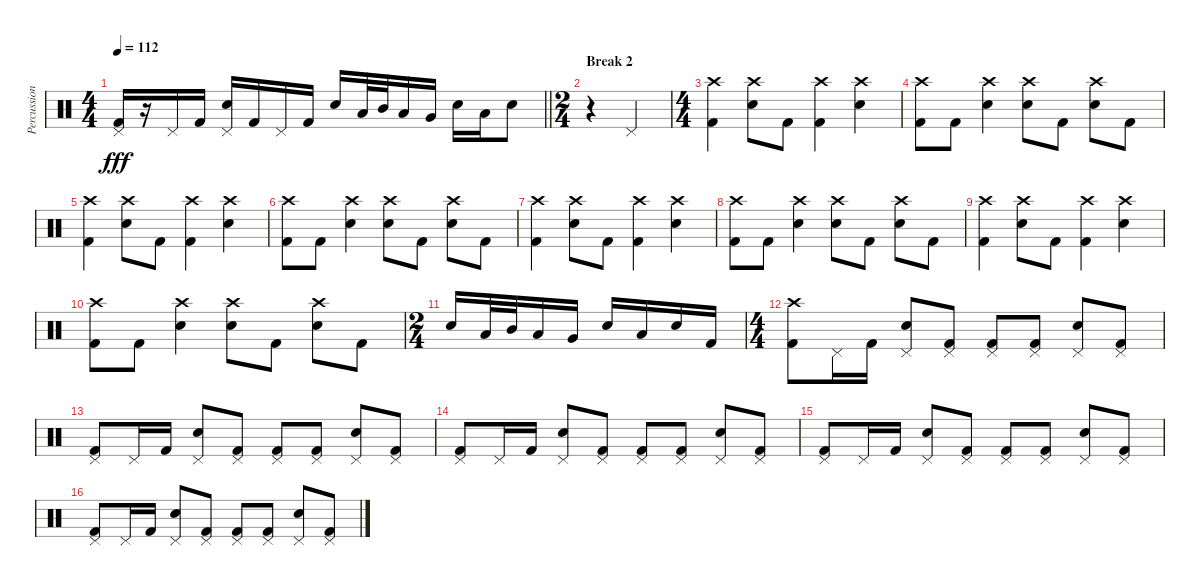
\track ("Percussion" "Percussion") {instrument percussion}
\staff {score}
\articulation defaults
\ts (4 4)
\tempo 112
\clef neutral
\barLineRight lightlight
\ks c
("Pedal Hi-Hat (hit)" "Kick (hit) 2").16{dy fff} r.16 "Pedal Hi-Hat (hit)".16 "Kick (hit) 2".16 ("Pedal Hi-Hat (hit)" "Electric Snare (hit)").16 "Kick (hit) 2".16 "Pedal Hi-Hat (hit)".16 "Kick (hit) 2".16 "Snare (hit) 2".16 "Low Tom (hit)".32 "Mid Tom (hit)".32 "Low Tom (hit)".16 "Very Low Tom (hit)".16 "Snare (hit) 2".16 "Low Tom (hit)".16 "Snare (hit) 2".8 |
\ts (2 4)
\section ("" "Break 2")
r.4 "Pedal Hi-Hat (hit)".4 |
\ts (4 4)
("Crash high (hit)" "Kick (hit) 2").4 ("Crash high (hit)" "Electric Snare (hit)").8 "Kick (hit) 2".8 ("Crash high (hit)" "Kick (hit) 2").4 ("Crash high (hit)" "Electric Snare (hit)").4 |
("Crash high (hit)" "Kick (hit) 2").8 "Kick (hit) 2".8 ("Crash high (hit)" "Electric Snare (hit)").4 ("Crash high (hit)" "Electric Snare (hit)").8 "Kick (hit) 2".8 ("Crash high (hit)" "Electric Snare (hit)").8 "Kick (hit) 2".8 |
("Crash high (hit)" "Kick (hit) 2").4 ("Crash high (hit)" "Electric Snare (hit)").8 "Kick (hit) 2".8 ("Crash high (hit)" "Kick (hit) 2").4 ("Crash high (hit)" "Electric Snare (hit)").4 |
("Crash high (hit)" "Kick (hit) 2").8 "Kick (hit) 2".8 ("Crash high (hit)" "Electric Snare (hit)").4 ("Crash high (hit)" "Electric Snare (hit)").8 "Kick (hit) 2".8 ("Crash high (hit)" "Electric Snare (hit)").8 "Kick (hit) 2".8 |
("Crash high (hit)" "Kick (hit) 2").4 ("Crash high (hit)" "Electric Snare (hit)").8 "Kick (hit) 2".8 ("Crash high (hit)" "Kick (hit) 2").4 ("Crash high (hit)" "Electric Snare (hit)").4 |
("Crash high (hit)" "Kick (hit) 2").8 "Kick (hit) 2".8 ("Crash high (hit)" "Electric Snare (hit)").4 ("Crash high (hit)" "Electric Snare (hit)").8 "Kick (hit) 2".8 ("Crash high (hit)" "Electric Snare (hit)").8 "Kick (hit) 2".8 |
("Crash high (hit)" "Kick (hit) 2").4 ("Crash high (hit)" "Electric Snare (hit)").8 "Kick (hit) 2".8 ("Crash high (hit)" "Kick (hit) 2").4 ("Crash high (hit)" "Electric Snare (hit)").4 |
("Crash high (hit)" "Kick (hit) 2").8 "Kick (hit) 2".8 ("Crash high (hit)" "Electric Snare (hit)").4 ("Crash high (hit)" "Electric Snare (hit)").8 "Kick (hit) 2".8 ("Crash high (hit)" "Electric Snare (hit)").8 "Kick (hit) 2".8 |
\ts (2 4)
"Snare (hit) 2".16 "Low Tom (hit)".32 "Mid Tom (hit)".32 "Low Tom (hit)".16 "Very Low Tom (hit)".16 "Snare (hit) 2".16 "Low Tom (hit)".16 "Snare (hit) 2".16 "Kick (hit) 2".16 |
\ts (4 4)
("Crash high (hit)" "Kick (hit) 2").8 "Pedal Hi-Hat (hit)".16 "Kick (hit) 2".16 ("Pedal Hi-Hat (hit)" "Electric Snare (hit)").8 ("Pedal Hi-Hat (hit)" "Kick (hit) 2").8 ("Pedal Hi-Hat (hit)" "Kick (hit) 2").8 ("Pedal Hi-Hat (hit)" "Kick (hit) 2").8 ("Pedal Hi-Hat (hit)" "Electric Snare (hit)").8 ("Pedal Hi-Hat (hit)" "Kick (hit) 2").8 |
("Pedal Hi-Hat (hit)" "Kick (hit) 2").8 "Pedal Hi-Hat (hit)".16 "Kick (hit) 2".16 ("Pedal Hi-Hat (hit)" "Electric Snare (hit)").8 ("Pedal Hi-Hat (hit)" "Kick (hit) 2").8 ("Pedal Hi-Hat (hit)" "Kick (hit) 2").8 ("Pedal Hi-Hat (hit)" "Kick (hit) 2").8 ("Pedal Hi-Hat (hit)" "Electric Snare (hit)").8 ("Pedal Hi-Hat (hit)" "Kick (hit) 2").8 |
("Pedal Hi-Hat (hit)" "Kick (hit) 2").8 "Pedal Hi-Hat (hit)".16 "Kick (hit) 2".16 ("Pedal Hi-Hat (hit)" "Electric Snare (hit)").8 ("Pedal Hi-Hat (hit)" "Kick (hit) 2").8 ("Pedal Hi-Hat (hit)" "Kick (hit) 2").8 ("Pedal Hi-Hat (hit)" "Kick (hit) 2").8 ("Pedal Hi-Hat (hit)" "Electric Snare (hit)").8 ("Pedal Hi-Hat (hit)" "Kick (hit) 2").8 |
("Pedal Hi-Hat (hit)" "Kick (hit) 2").8 "Pedal Hi-Hat (hit)".16 "Kick (hit) 2".16 ("Pedal Hi-Hat (hit)" "Electric Snare (hit)").8 ("Pedal Hi-Hat (hit)" "Kick (hit) 2").8 ("Pedal Hi-Hat (hit)" "Kick (hit) 2").8 ("Pedal Hi-Hat (hit)" "Kick (hit) 2").8 ("Pedal Hi-Hat (hit)" "Electric Snare (hit)").8 ("Pedal Hi-Hat (hit)" "Kick (hit) 2").8 |
("Pedal Hi-Hat (hit)" "Kick (hit) 2").8 "Pedal Hi-Hat (hit)".16 "Kick (hit) 2".16 ("Pedal Hi-Hat (hit)" "Electric Snare (hit)").8 ("Pedal Hi-Hat (hit)" "Kick (hit) 2").8 ("Pedal Hi-Hat (hit)" "Kick (hit) 2").8 ("Pedal Hi-Hat (hit)" "Kick (hit) 2").8 ("Pedal Hi-Hat (hit)" "Electric Snare (hit)").8 ("Pedal Hi-Hat (hit)" "Kick (hit) 2").8
